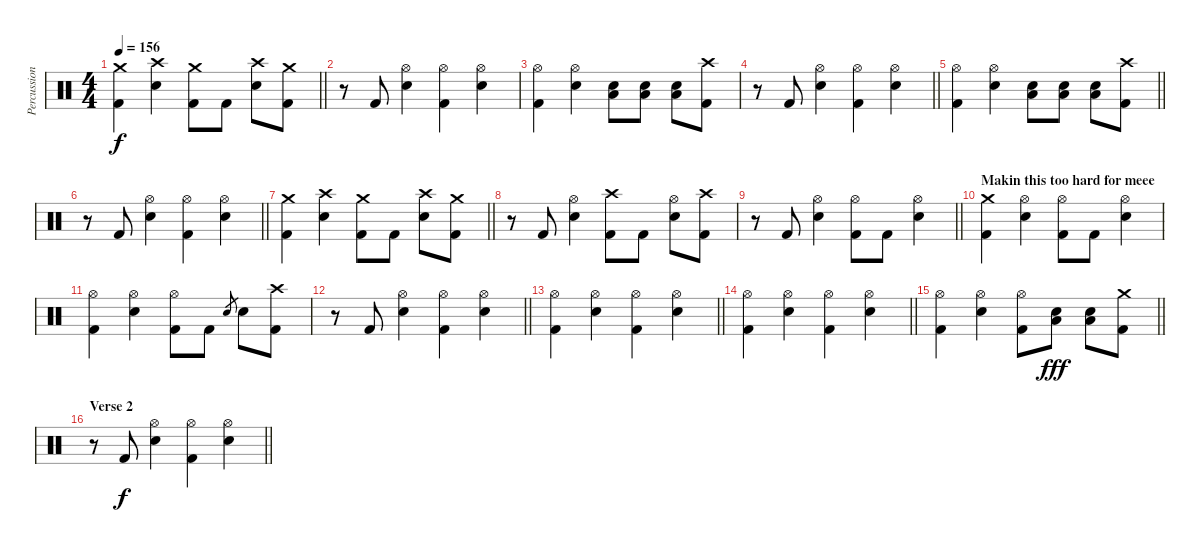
\track ("Percussion" "Percussion") {instrument percussion}
\staff {score}
\articulation defaults
\ts (4 4)
\tempo 156
\clef neutral
\barLineRight lightlight
\ks c
("Crash medium (hit)" "Kick (hit) 2").4{dy f} ("Crash high (hit)" "Snare (hit) 2").4 ("Crash medium (hit)" "Kick (hit) 2").8 "Kick (hit) 2".8 ("Crash high (hit)" "Snare (hit) 2").8 ("Crash medium (hit)" "Kick (hit) 2").8 |
r.8 "Kick (hit) 2".8 ("Hi-Hat (open)" "Snare (hit) 2").4 ("Hi-Hat (open)" "Kick (hit) 2").4 ("Hi-Hat (open)" "Snare (hit) 2").4 |
("Hi-Hat (open)" "Kick (hit) 2").4 ("Hi-Hat (open)" "Snare (hit) 2").4 ("Low Tom (hit)" "Snare (hit) 2").8 ("Low Tom (hit)" "Snare (hit) 2").8 ("Low Tom (hit)" "Snare (hit) 2").8 ("Crash high (hit)" "Kick (hit) 2").8 |
\barLineRight lightlight
r.8 "Kick (hit) 2".8 ("Hi-Hat (open)" "Snare (hit) 2").4 ("Hi-Hat (open)" "Kick (hit) 2").4 ("Hi-Hat (open)" "Snare (hit) 2").4 |
\barLineRight lightlight
("Hi-Hat (open)" "Kick (hit) 2").4 ("Hi-Hat (open)" "Snare (hit) 2").4 ("Low Tom (hit)" "Snare (hit) 2").8 ("Low Tom (hit)" "Snare (hit) 2").8 ("Low Tom (hit)" "Snare (hit) 2").8 ("Crash high (hit)" "Kick (hit) 2").8 |
\barLineRight lightlight
r.8 "Kick (hit) 2".8 ("Hi-Hat (open)" "Snare (hit) 2").4 ("Hi-Hat (open)" "Kick (hit) 2").4 ("Hi-Hat (open)" "Snare (hit) 2").4 |
\barLineRight lightlight
("Crash medium (hit)" "Kick (hit) 2").4 ("Crash high (hit)" "Snare (hit) 2").4 ("Crash medium (hit)" "Kick (hit) 2").8 "Kick (hit) 2".8 ("Crash high (hit)" "Snare (hit) 2").8 ("Crash medium (hit)" "Kick (hit) 2").8 |
r.8 "Kick (hit) 2".8 ("Hi-Hat (open)" "Snare (hit) 2").4 ("Crash high (hit)" "Kick (hit) 2").8 "Kick (hit) 2".8 ("Hi-Hat (open)" "Snare (hit) 2").8 ("Crash high (hit)" "Kick (hit) 2").8 |
\barLineRight lightlight
r.8 "Kick (hit) 2".8 ("Hi-Hat (open)" "Snare (hit) 2").4 ("Hi-Hat (open)" "Kick (hit) 2").8 "Kick (hit) 2".8 ("Hi-Hat (open)" "Snare (hit) 2").4 |
\section ("" "Makin this too hard for meee")
("Crash medium (hit)" "Kick (hit) 2").4 ("Hi-Hat (open)" "Snare (hit) 2").4 ("Hi-Hat (open)" "Kick (hit) 2").8 "Kick (hit) 2".8 ("Hi-Hat (open)" "Snare (hit) 2").4 |
("Hi-Hat (open)" "Kick (hit) 2").4 ("Hi-Hat (open)" "Snare (hit) 2").4 ("Hi-Hat (open)" "Kick (hit) 2").8 "Kick (hit) 2".8 "Snare (hit) 2".8{gr} "Snare (hit) 2".8 ("Crash high (hit)" "Kick (hit) 2").8 |
\barLineRight lightlight
r.8 "Kick (hit) 2".8 ("Hi-Hat (open)" "Snare (hit) 2").4 ("Hi-Hat (open)" "Kick (hit) 2").4 ("Hi-Hat (open)" "Snare (hit) 2").4 |
\barLineRight lightlight
("Hi-Hat (open)" "Kick (hit) 2").4 ("Hi-Hat (open)" "Snare (hit) 2").4 ("Hi-Hat (open)" "Kick (hit) 2").4 ("Hi-Hat (open)" "Snare (hit) 2").4 |
\barLineRight lightlight
("Hi-Hat (open)" "Kick (hit) 2").4 ("Hi-Hat (open)" "Snare (hit) 2").4 ("Hi-Hat (open)" "Kick (hit) 2").4 ("Hi-Hat (open)" "Snare (hit) 2").4 |
\barLineRight lightlight
("Hi-Hat (open)" "Kick (hit) 2").4 ("Hi-Hat (open)" "Snare (hit) 2").4 ("Hi-Hat (open)" "Kick (hit) 2").8 ("Low Tom (hit)" "Snare (hit) 2").8{dy fff} ("Low Tom (hit)" "Snare (hit) 2").8 ("Crash medium (hit)" "Kick (hit) 2").8 |
\section ("" "Verse 2")
\barLineRight lightlight
r.8 "Kick (hit) 2".8{dy f} ("Hi-Hat (open)" "Snare (hit) 2").4 ("Hi-Hat (open)" "Kick (hit) 2").4 ("Hi-Hat (open)" "Snare (hit) 2").4
